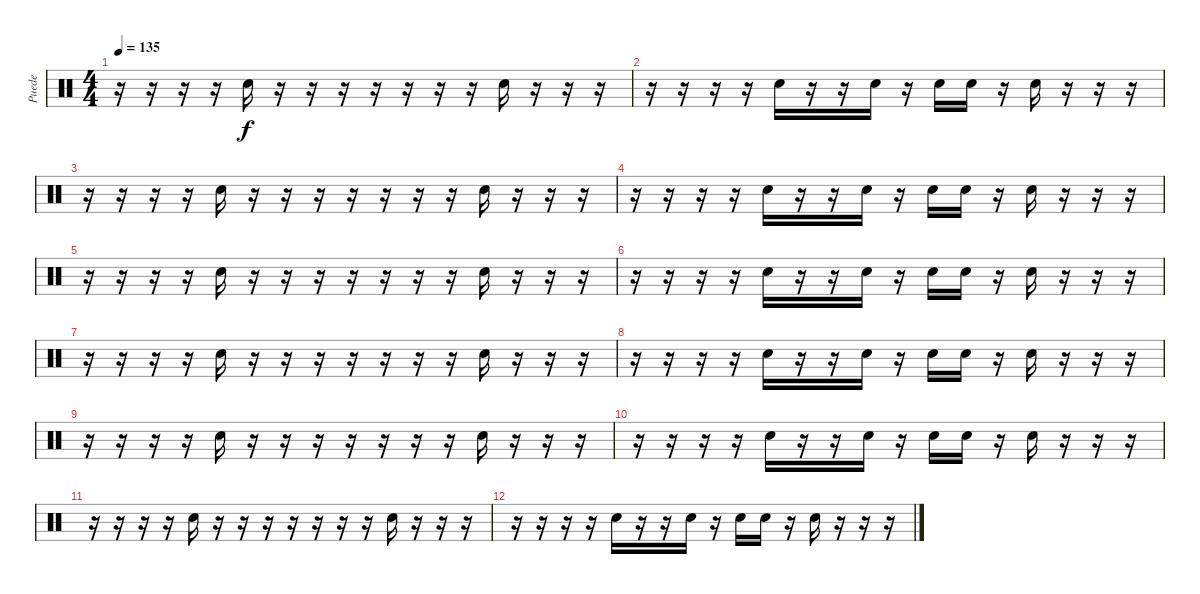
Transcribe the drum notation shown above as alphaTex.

\track ("Puede" "Puede") {instrument percussion}
\staff {score}
\articulation defaults
\ts (4 4)
\tempo 135
\clef neutral
\ks c
r.16{dy f} r.16 r.16 r.16 "Hand Clap (hit)".16 r.16 r.16 r.16 r.16 r.16 r.16 r.16 "Hand Clap (hit)".16 r.16 r.16 r.16 |
r.16 r.16 r.16 r.16 "Hand Clap (hit)".16 r.16 r.16 "Hand Clap (hit)".16 r.16 "Hand Clap (hit)".16 "Hand Clap (hit)".16 r.16 "Hand Clap (hit)".16 r.16 r.16 r.16 |
r.16 r.16 r.16 r.16 "Hand Clap (hit)".16 r.16 r.16 r.16 r.16 r.16 r.16 r.16 "Hand Clap (hit)".16 r.16 r.16 r.16 |
r.16 r.16 r.16 r.16 "Hand Clap (hit)".16 r.16 r.16 "Hand Clap (hit)".16 r.16 "Hand Clap (hit)".16 "Hand Clap (hit)".16 r.16 "Hand Clap (hit)".16 r.16 r.16 r.16 |
r.16 r.16 r.16 r.16 "Hand Clap (hit)".16 r.16 r.16 r.16 r.16 r.16 r.16 r.16 "Hand Clap (hit)".16 r.16 r.16 r.16 |
r.16 r.16 r.16 r.16 "Hand Clap (hit)".16 r.16 r.16 "Hand Clap (hit)".16 r.16 "Hand Clap (hit)".16 "Hand Clap (hit)".16 r.16 "Hand Clap (hit)".16 r.16 r.16 r.16 |
r.16 r.16 r.16 r.16 "Hand Clap (hit)".16 r.16 r.16 r.16 r.16 r.16 r.16 r.16 "Hand Clap (hit)".16 r.16 r.16 r.16 |
r.16 r.16 r.16 r.16 "Hand Clap (hit)".16 r.16 r.16 "Hand Clap (hit)".16 r.16 "Hand Clap (hit)".16 "Hand Clap (hit)".16 r.16 "Hand Clap (hit)".16 r.16 r.16 r.16 |
r.16 r.16 r.16 r.16 "Hand Clap (hit)".16 r.16 r.16 r.16 r.16 r.16 r.16 r.16 "Hand Clap (hit)".16 r.16 r.16 r.16 |
r.16 r.16 r.16 r.16 "Hand Clap (hit)".16 r.16 r.16 "Hand Clap (hit)".16 r.16 "Hand Clap (hit)".16 "Hand Clap (hit)".16 r.16 "Hand Clap (hit)".16 r.16 r.16 r.16 |
r.16 r.16 r.16 r.16 "Hand Clap (hit)".16 r.16 r.16 r.16 r.16 r.16 r.16 r.16 "Hand Clap (hit)".16 r.16 r.16 r.16 |
r.16 r.16 r.16 r.16 "Hand Clap (hit)".16 r.16 r.16 "Hand Clap (hit)".16 r.16 "Hand Clap (hit)".16 "Hand Clap (hit)".16 r.16 "Hand Clap (hit)".16 r.16 r.16 r.16
